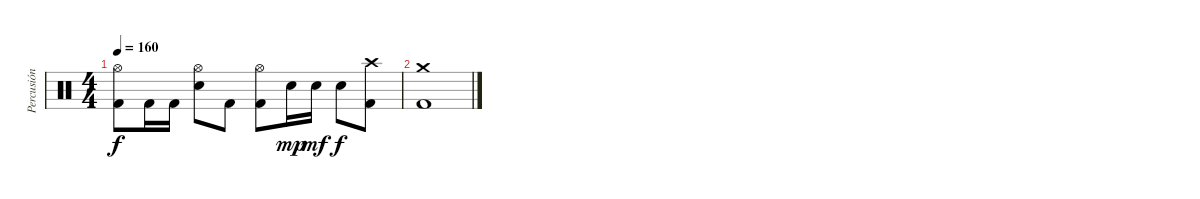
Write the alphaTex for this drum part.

\track ("Percusión" "Percusión") {instrument percussion}
\staff {score}
\articulation defaults
\ts (4 4)
\tempo 160
\clef neutral
\ks c
("Hi-Hat (open)" "Kick (hit) 2").8{dy f} "Kick (hit) 2".16 "Kick (hit) 2".16 ("Hi-Hat (open)" "Electric Snare (hit)").8 "Kick (hit) 2".8 ("Hi-Hat (open)" "Kick (hit) 2").8 "Electric Snare (hit)".16{dy mp} "Electric Snare (hit)".16{dy mf} "Electric Snare (hit)".8{dy f} ("Crash high (hit)" "Kick (hit) 2").8 |
("Crash medium (hit)" "Kick (hit) 2").1
